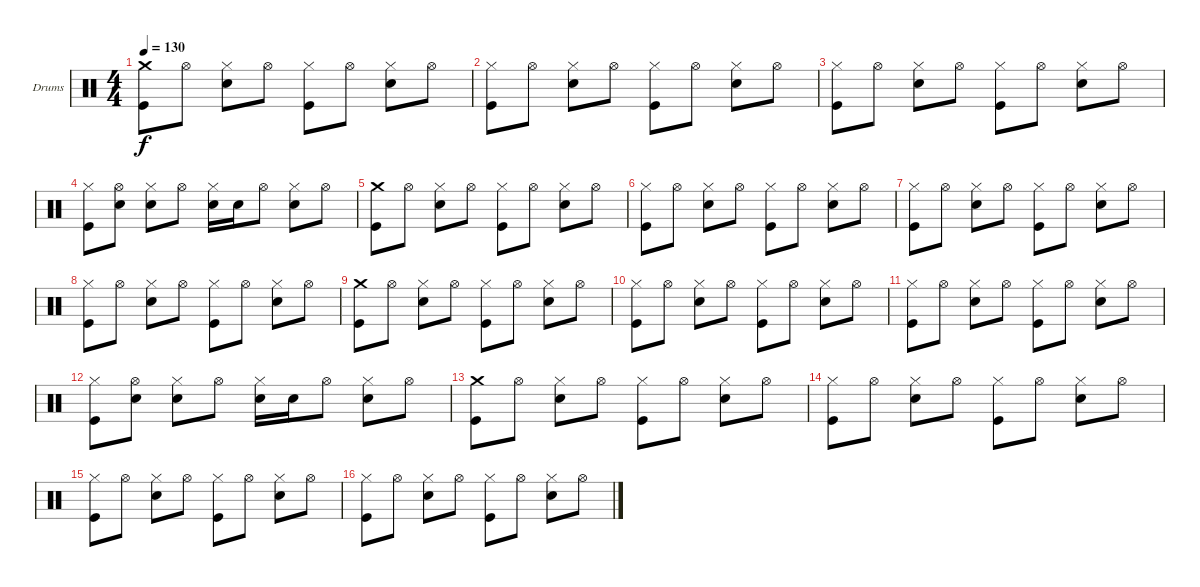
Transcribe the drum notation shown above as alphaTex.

\bracketExtendMode groupsimilarinstruments
\firstSystemTrackNameOrientation horizontal
\otherSystemsTrackNameOrientation horizontal
\track ("Drumkit" "Drums") {instrument percussion}
\staff {score}
\articulation defaults
\ts (4 4)
\tempo 130
\clef neutral
\ks c
("Crash medium (hit)" "Kick (hit)").8{dy f} "Hi-Hat (open)".8 ("Hi-Hat (closed)" "Snare (hit) 2").8 "Hi-Hat (open)".8 ("Hi-Hat (closed)" "Kick (hit)").8 "Hi-Hat (open)".8 ("Hi-Hat (closed)" "Snare (hit) 2").8 "Hi-Hat (open)".8 |
("Hi-Hat (closed)" "Kick (hit)").8 "Hi-Hat (open)".8 ("Hi-Hat (closed)" "Snare (hit) 2").8 "Hi-Hat (open)".8 ("Hi-Hat (closed)" "Kick (hit)").8 "Hi-Hat (open)".8 ("Hi-Hat (closed)" "Snare (hit) 2").8 "Hi-Hat (open)".8 |
("Hi-Hat (closed)" "Kick (hit)").8 "Hi-Hat (open)".8 ("Hi-Hat (closed)" "Snare (hit) 2").8 "Hi-Hat (open)".8 ("Hi-Hat (closed)" "Kick (hit)").8 "Hi-Hat (open)".8 ("Hi-Hat (closed)" "Snare (hit) 2").8 "Hi-Hat (open)".8 |
("Hi-Hat (closed)" "Kick (hit)").8 ("Hi-Hat (open)" "Snare (hit) 2").8 ("Hi-Hat (closed)" "Snare (hit) 2").8 "Hi-Hat (open)".8 ("Hi-Hat (closed)" "Snare (hit) 2").16 "Snare (hit) 2".16 "Hi-Hat (open)".8 ("Hi-Hat (closed)" "Snare (hit) 2").8 "Hi-Hat (open)".8 |
("Crash medium (hit)" "Kick (hit)").8 "Hi-Hat (open)".8 ("Hi-Hat (closed)" "Snare (hit) 2").8 "Hi-Hat (open)".8 ("Hi-Hat (closed)" "Kick (hit)").8 "Hi-Hat (open)".8 ("Hi-Hat (closed)" "Snare (hit) 2").8 "Hi-Hat (open)".8 |
("Hi-Hat (closed)" "Kick (hit)").8 "Hi-Hat (open)".8 ("Hi-Hat (closed)" "Snare (hit) 2").8 "Hi-Hat (open)".8 ("Hi-Hat (closed)" "Kick (hit)").8 "Hi-Hat (open)".8 ("Hi-Hat (closed)" "Snare (hit) 2").8 "Hi-Hat (open)".8 |
("Hi-Hat (closed)" "Kick (hit)").8 "Hi-Hat (open)".8 ("Hi-Hat (closed)" "Snare (hit) 2").8 "Hi-Hat (open)".8 ("Hi-Hat (closed)" "Kick (hit)").8 "Hi-Hat (open)".8 ("Hi-Hat (closed)" "Snare (hit) 2").8 "Hi-Hat (open)".8 |
("Hi-Hat (closed)" "Kick (hit)").8 "Hi-Hat (open)".8 ("Hi-Hat (closed)" "Snare (hit) 2").8 "Hi-Hat (open)".8 ("Hi-Hat (closed)" "Kick (hit)").8 "Hi-Hat (open)".8 ("Hi-Hat (closed)" "Snare (hit) 2").8 "Hi-Hat (open)".8 |
("Crash medium (hit)" "Kick (hit)").8 "Hi-Hat (open)".8 ("Hi-Hat (closed)" "Snare (hit) 2").8 "Hi-Hat (open)".8 ("Hi-Hat (closed)" "Kick (hit)").8 "Hi-Hat (open)".8 ("Hi-Hat (closed)" "Snare (hit) 2").8 "Hi-Hat (open)".8 |
("Hi-Hat (closed)" "Kick (hit)").8 "Hi-Hat (open)".8 ("Hi-Hat (closed)" "Snare (hit) 2").8 "Hi-Hat (open)".8 ("Hi-Hat (closed)" "Kick (hit)").8 "Hi-Hat (open)".8 ("Hi-Hat (closed)" "Snare (hit) 2").8 "Hi-Hat (open)".8 |
("Hi-Hat (closed)" "Kick (hit)").8 "Hi-Hat (open)".8 ("Hi-Hat (closed)" "Snare (hit) 2").8 "Hi-Hat (open)".8 ("Hi-Hat (closed)" "Kick (hit)").8 "Hi-Hat (open)".8 ("Hi-Hat (closed)" "Snare (hit) 2").8 "Hi-Hat (open)".8 |
("Hi-Hat (closed)" "Kick (hit)").8 ("Hi-Hat (open)" "Snare (hit) 2").8 ("Hi-Hat (closed)" "Snare (hit) 2").8 "Hi-Hat (open)".8 ("Hi-Hat (closed)" "Snare (hit) 2").16 "Snare (hit) 2".16 "Hi-Hat (open)".8 ("Hi-Hat (closed)" "Snare (hit) 2").8 "Hi-Hat (open)".8 |
("Crash medium (hit)" "Kick (hit)").8 "Hi-Hat (open)".8 ("Hi-Hat (closed)" "Snare (hit) 2").8 "Hi-Hat (open)".8 ("Hi-Hat (closed)" "Kick (hit)").8 "Hi-Hat (open)".8 ("Hi-Hat (closed)" "Snare (hit) 2").8 "Hi-Hat (open)".8 |
("Hi-Hat (closed)" "Kick (hit)").8 "Hi-Hat (open)".8 ("Hi-Hat (closed)" "Snare (hit) 2").8 "Hi-Hat (open)".8 ("Hi-Hat (closed)" "Kick (hit)").8 "Hi-Hat (open)".8 ("Hi-Hat (closed)" "Snare (hit) 2").8 "Hi-Hat (open)".8 |
("Hi-Hat (closed)" "Kick (hit)").8 "Hi-Hat (open)".8 ("Hi-Hat (closed)" "Snare (hit) 2").8 "Hi-Hat (open)".8 ("Hi-Hat (closed)" "Kick (hit)").8 "Hi-Hat (open)".8 ("Hi-Hat (closed)" "Snare (hit) 2").8 "Hi-Hat (open)".8 |
("Hi-Hat (closed)" "Kick (hit)").8 "Hi-Hat (open)".8 ("Hi-Hat (closed)" "Snare (hit) 2").8 "Hi-Hat (open)".8 ("Hi-Hat (closed)" "Kick (hit)").8 "Hi-Hat (open)".8 ("Hi-Hat (closed)" "Snare (hit) 2").8 "Hi-Hat (open)".8
